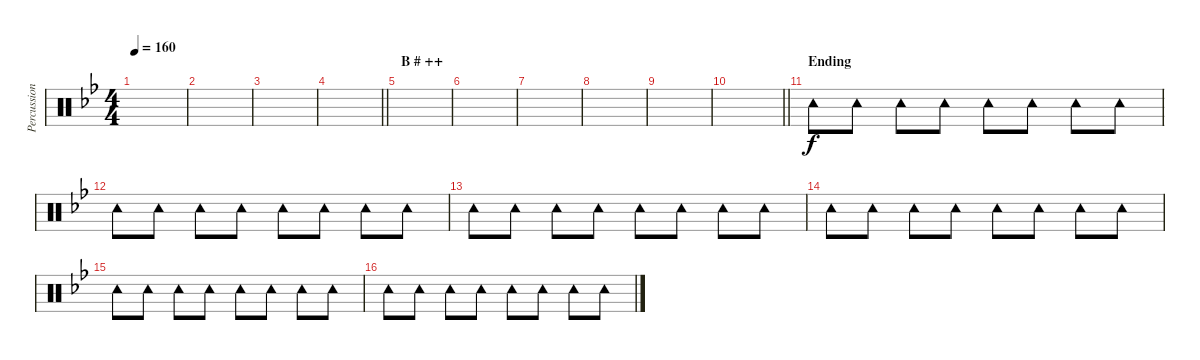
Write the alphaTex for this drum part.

\track ("Percussion (Tainaka Ritsu)" "Percussion") {instrument percussion}
\staff {score}
\articulation defaults
\ts (4 4)
\tempo 160
\clef neutral
\ks bb
|
|
|
\barLineRight lightlight
|
\section ("" "B # ++")
|
|
|
|
|
\barLineRight lightlight
|
\section ("" "Ending")
"Tambourine (hit)".8 "Tambourine (hit)".8 "Tambourine (hit)".8 "Tambourine (hit)".8 "Tambourine (hit)".8 "Tambourine (hit)".8 "Tambourine (hit)".8 "Tambourine (hit)".8 |
"Tambourine (hit)".8 "Tambourine (hit)".8 "Tambourine (hit)".8 "Tambourine (hit)".8 "Tambourine (hit)".8 "Tambourine (hit)".8 "Tambourine (hit)".8 "Tambourine (hit)".8 |
"Tambourine (hit)".8 "Tambourine (hit)".8 "Tambourine (hit)".8 "Tambourine (hit)".8 "Tambourine (hit)".8 "Tambourine (hit)".8 "Tambourine (hit)".8 "Tambourine (hit)".8 |
"Tambourine (hit)".8 "Tambourine (hit)".8 "Tambourine (hit)".8 "Tambourine (hit)".8 "Tambourine (hit)".8 "Tambourine (hit)".8 "Tambourine (hit)".8 "Tambourine (hit)".8 |
"Tambourine (hit)".8 "Tambourine (hit)".8 "Tambourine (hit)".8 "Tambourine (hit)".8 "Tambourine (hit)".8 "Tambourine (hit)".8 "Tambourine (hit)".8 "Tambourine (hit)".8 |
"Tambourine (hit)".8 "Tambourine (hit)".8 "Tambourine (hit)".8 "Tambourine (hit)".8 "Tambourine (hit)".8 "Tambourine (hit)".8 "Tambourine (hit)".8 "Tambourine (hit)".8
